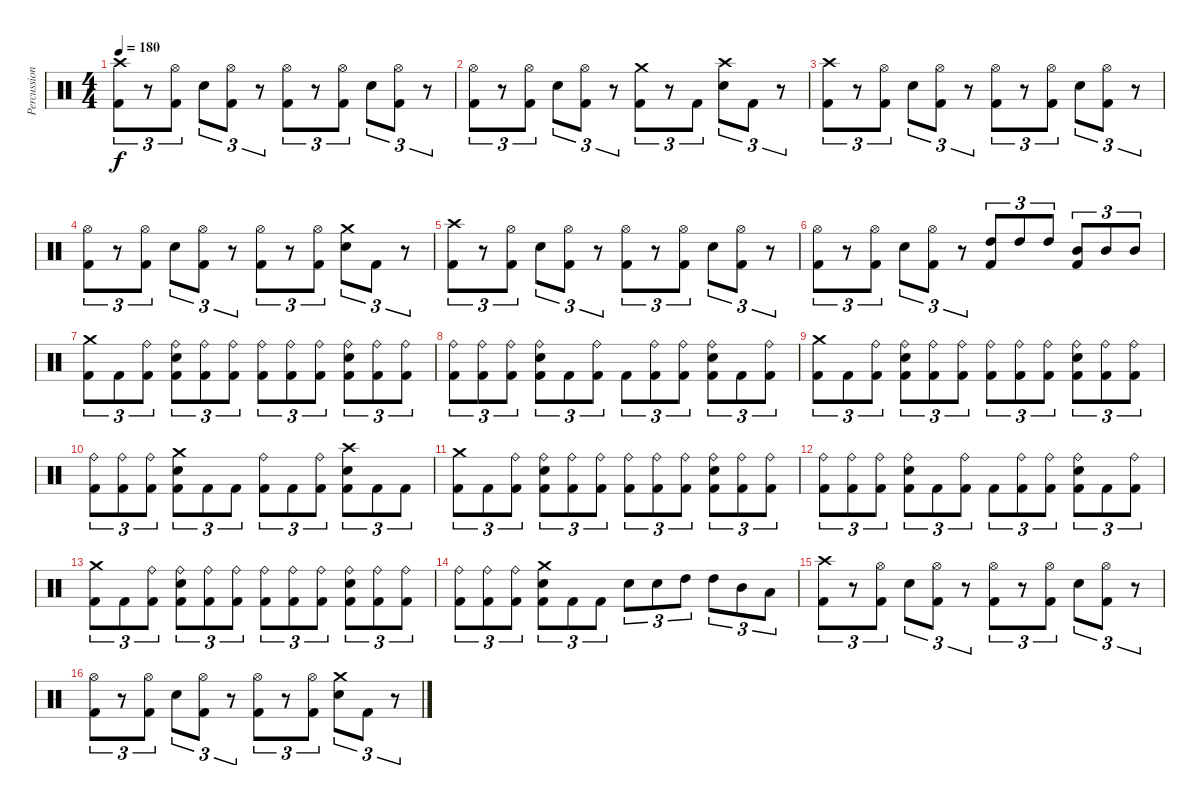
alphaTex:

\track ("Percussion" "Percussion") {instrument percussion}
\staff {score}
\articulation defaults
\ts (4 4)
\tempo 180
\clef neutral
\ks c
("Crash high (hit)" "Kick (hit) 2").8{tu (3 2) dy f} r.8{tu (3 2)} ("Hi-Hat (open)" "Kick (hit) 2").8{tu (3 2)} "Snare (hit) 2".8{tu (3 2)} ("Hi-Hat (open)" "Kick (hit) 2").8{tu (3 2)} r.8{tu (3 2)} ("Hi-Hat (open)" "Kick (hit) 2").8{tu (3 2)} r.8{tu (3 2)} ("Hi-Hat (open)" "Kick (hit) 2").8{tu (3 2)} "Snare (hit) 2".8{tu (3 2)} ("Hi-Hat (open)" "Kick (hit) 2").8{tu (3 2)} r.8{tu (3 2)} |
("Hi-Hat (open)" "Kick (hit) 2").8{tu (3 2)} r.8{tu (3 2)} ("Hi-Hat (open)" "Kick (hit) 2").8{tu (3 2)} "Snare (hit) 2".8{tu (3 2)} ("Hi-Hat (open)" "Kick (hit) 2").8{tu (3 2)} r.8{tu (3 2)} ("Crash medium (hit)" "Kick (hit) 2").8{tu (3 2)} r.8{tu (3 2)} "Kick (hit) 2".8{tu (3 2)} ("Crash high (hit)" "Snare (hit) 2").8{tu (3 2)} "Kick (hit) 2".8{tu (3 2)} r.8{tu (3 2)} |
("Crash high (hit)" "Kick (hit) 2").8{tu (3 2)} r.8{tu (3 2)} ("Hi-Hat (open)" "Kick (hit) 2").8{tu (3 2)} "Snare (hit) 2".8{tu (3 2)} ("Hi-Hat (open)" "Kick (hit) 2").8{tu (3 2)} r.8{tu (3 2)} ("Hi-Hat (open)" "Kick (hit) 2").8{tu (3 2)} r.8{tu (3 2)} ("Hi-Hat (open)" "Kick (hit) 2").8{tu (3 2)} "Snare (hit) 2".8{tu (3 2)} ("Hi-Hat (open)" "Kick (hit) 2").8{tu (3 2)} r.8{tu (3 2)} |
("Hi-Hat (open)" "Kick (hit) 2").8{tu (3 2)} r.8{tu (3 2)} ("Hi-Hat (open)" "Kick (hit) 2").8{tu (3 2)} "Snare (hit) 2".8{tu (3 2)} ("Hi-Hat (open)" "Kick (hit) 2").8{tu (3 2)} r.8{tu (3 2)} ("Hi-Hat (open)" "Kick (hit) 2").8{tu (3 2)} r.8{tu (3 2)} ("Hi-Hat (open)" "Kick (hit) 2").8{tu (3 2)} ("Crash medium (hit)" "Snare (hit) 2").8{tu (3 2)} "Kick (hit) 2".8{tu (3 2)} r.8{tu (3 2)} |
("Crash high (hit)" "Kick (hit) 2").8{tu (3 2)} r.8{tu (3 2)} ("Hi-Hat (open)" "Kick (hit) 2").8{tu (3 2)} "Snare (hit) 2".8{tu (3 2)} ("Hi-Hat (open)" "Kick (hit) 2").8{tu (3 2)} r.8{tu (3 2)} ("Hi-Hat (open)" "Kick (hit) 2").8{tu (3 2)} r.8{tu (3 2)} ("Hi-Hat (open)" "Kick (hit) 2").8{tu (3 2)} "Snare (hit) 2".8{tu (3 2)} ("Hi-Hat (open)" "Kick (hit) 2").8{tu (3 2)} r.8{tu (3 2)} |
("Hi-Hat (open)" "Kick (hit) 2").8{tu (3 2)} r.8{tu (3 2)} ("Hi-Hat (open)" "Kick (hit) 2").8{tu (3 2)} "Snare (hit) 2".8{tu (3 2)} ("Hi-Hat (open)" "Kick (hit) 2").8{tu (3 2)} r.8{tu (3 2)} ("High Tom (hit)" "Kick (hit) 2").8{tu (3 2)} "High Tom (hit)".8{tu (3 2)} "High Tom (hit)".8{tu (3 2)} ("Mid Tom (hit)" "Kick (hit) 2").8{tu (3 2)} "Mid Tom (hit)".8{tu (3 2)} "Mid Tom (hit)".8{tu (3 2)} |
("Crash medium (hit)" "Kick (hit) 2").8{tu (3 2)} "Kick (hit) 2".8{tu (3 2)} ("Ride (bell)" "Kick (hit) 2").8{tu (3 2)} ("Ride (bell)" "Snare (hit) 2" "Kick (hit) 2").8{tu (3 2)} ("Ride (bell)" "Kick (hit) 2").8{tu (3 2)} ("Ride (bell)" "Kick (hit) 2").8{tu (3 2)} ("Ride (bell)" "Kick (hit) 2").8{tu (3 2)} ("Ride (bell)" "Kick (hit) 2").8{tu (3 2)} ("Ride (bell)" "Kick (hit) 2").8{tu (3 2)} ("Ride (bell)" "Snare (hit) 2" "Kick (hit) 2").8{tu (3 2)} ("Ride (bell)" "Kick (hit) 2").8{tu (3 2)} ("Ride (bell)" "Kick (hit) 2").8{tu (3 2)} |
("Ride (bell)" "Kick (hit) 2").8{tu (3 2)} ("Ride (bell)" "Kick (hit) 2").8{tu (3 2)} ("Ride (bell)" "Kick (hit) 2").8{tu (3 2)} ("Ride (bell)" "Snare (hit) 2" "Kick (hit) 2").8{tu (3 2)} "Kick (hit) 2".8{tu (3 2)} ("Ride (bell)" "Kick (hit) 2").8{tu (3 2)} "Kick (hit) 2".8{tu (3 2)} ("Ride (bell)" "Kick (hit) 2").8{tu (3 2)} ("Ride (bell)" "Kick (hit) 2").8{tu (3 2)} ("Ride (bell)" "Snare (hit) 2" "Kick (hit) 2").8{tu (3 2)} "Kick (hit) 2".8{tu (3 2)} ("Ride (bell)" "Kick (hit) 2").8{tu (3 2)} |
("Crash medium (hit)" "Kick (hit) 2").8{tu (3 2)} "Kick (hit) 2".8{tu (3 2)} ("Ride (bell)" "Kick (hit) 2").8{tu (3 2)} ("Ride (bell)" "Snare (hit) 2" "Kick (hit) 2").8{tu (3 2)} ("Ride (bell)" "Kick (hit) 2").8{tu (3 2)} ("Ride (bell)" "Kick (hit) 2").8{tu (3 2)} ("Ride (bell)" "Kick (hit) 2").8{tu (3 2)} ("Ride (bell)" "Kick (hit) 2").8{tu (3 2)} ("Ride (bell)" "Kick (hit) 2").8{tu (3 2)} ("Ride (bell)" "Snare (hit) 2" "Kick (hit) 2").8{tu (3 2)} ("Ride (bell)" "Kick (hit) 2").8{tu (3 2)} ("Ride (bell)" "Kick (hit) 2").8{tu (3 2)} |
("Ride (bell)" "Kick (hit) 2").8{tu (3 2)} ("Ride (bell)" "Kick (hit) 2").8{tu (3 2)} ("Ride (bell)" "Kick (hit) 2").8{tu (3 2)} ("Crash medium (hit)" "Snare (hit) 2" "Kick (hit) 2").8{tu (3 2)} "Kick (hit) 2".8{tu (3 2)} "Kick (hit) 2".8{tu (3 2)} ("Ride (bell)" "Kick (hit) 2").8{tu (3 2)} "Kick (hit) 2".8{tu (3 2)} ("Ride (bell)" "Kick (hit) 2").8{tu (3 2)} ("Crash high (hit)" "Snare (hit) 2" "Kick (hit) 2").8{tu (3 2)} "Kick (hit) 2".8{tu (3 2)} "Kick (hit) 2".8{tu (3 2)} |
("Crash medium (hit)" "Kick (hit) 2").8{tu (3 2)} "Kick (hit) 2".8{tu (3 2)} ("Ride (bell)" "Kick (hit) 2").8{tu (3 2)} ("Ride (bell)" "Snare (hit) 2" "Kick (hit) 2").8{tu (3 2)} ("Ride (bell)" "Kick (hit) 2").8{tu (3 2)} ("Ride (bell)" "Kick (hit) 2").8{tu (3 2)} ("Ride (bell)" "Kick (hit) 2").8{tu (3 2)} ("Ride (bell)" "Kick (hit) 2").8{tu (3 2)} ("Ride (bell)" "Kick (hit) 2").8{tu (3 2)} ("Ride (bell)" "Snare (hit) 2" "Kick (hit) 2").8{tu (3 2)} ("Ride (bell)" "Kick (hit) 2").8{tu (3 2)} ("Ride (bell)" "Kick (hit) 2").8{tu (3 2)} |
("Ride (bell)" "Kick (hit) 2").8{tu (3 2)} ("Ride (bell)" "Kick (hit) 2").8{tu (3 2)} ("Ride (bell)" "Kick (hit) 2").8{tu (3 2)} ("Ride (bell)" "Snare (hit) 2" "Kick (hit) 2").8{tu (3 2)} "Kick (hit) 2".8{tu (3 2)} ("Ride (bell)" "Kick (hit) 2").8{tu (3 2)} "Kick (hit) 2".8{tu (3 2)} ("Ride (bell)" "Kick (hit) 2").8{tu (3 2)} ("Ride (bell)" "Kick (hit) 2").8{tu (3 2)} ("Ride (bell)" "Snare (hit) 2" "Kick (hit) 2").8{tu (3 2)} "Kick (hit) 2".8{tu (3 2)} ("Ride (bell)" "Kick (hit) 2").8{tu (3 2)} |
("Crash medium (hit)" "Kick (hit) 2").8{tu (3 2)} "Kick (hit) 2".8{tu (3 2)} ("Ride (bell)" "Kick (hit) 2").8{tu (3 2)} ("Ride (bell)" "Snare (hit) 2" "Kick (hit) 2").8{tu (3 2)} ("Ride (bell)" "Kick (hit) 2").8{tu (3 2)} ("Ride (bell)" "Kick (hit) 2").8{tu (3 2)} ("Ride (bell)" "Kick (hit) 2").8{tu (3 2)} ("Ride (bell)" "Kick (hit) 2").8{tu (3 2)} ("Ride (bell)" "Kick (hit) 2").8{tu (3 2)} ("Ride (bell)" "Snare (hit) 2" "Kick (hit) 2").8{tu (3 2)} ("Ride (bell)" "Kick (hit) 2").8{tu (3 2)} ("Ride (bell)" "Kick (hit) 2").8{tu (3 2)} |
("Ride (bell)" "Kick (hit) 2").8{tu (3 2)} ("Ride (bell)" "Kick (hit) 2").8{tu (3 2)} ("Ride (bell)" "Kick (hit) 2").8{tu (3 2)} ("Crash medium (hit)" "Snare (hit) 2" "Kick (hit) 2").8{tu (3 2)} "Kick (hit) 2".8{tu (3 2)} "Kick (hit) 2".8{tu (3 2)} "Snare (hit) 2".8{tu (3 2)} "Snare (hit) 2".8{tu (3 2)} "High Tom (hit)".8{tu (3 2)} "High Tom (hit)".8{tu (3 2)} "Mid Tom (hit)".8{tu (3 2)} "Low Tom (hit)".8{tu (3 2)} |
("Crash high (hit)" "Kick (hit) 2").8{tu (3 2)} r.8{tu (3 2)} ("Hi-Hat (open)" "Kick (hit) 2").8{tu (3 2)} "Snare (hit) 2".8{tu (3 2)} ("Hi-Hat (open)" "Kick (hit) 2").8{tu (3 2)} r.8{tu (3 2)} ("Hi-Hat (open)" "Kick (hit) 2").8{tu (3 2)} r.8{tu (3 2)} ("Hi-Hat (open)" "Kick (hit) 2").8{tu (3 2)} "Snare (hit) 2".8{tu (3 2)} ("Hi-Hat (open)" "Kick (hit) 2").8{tu (3 2)} r.8{tu (3 2)} |
("Hi-Hat (open)" "Kick (hit) 2").8{tu (3 2)} r.8{tu (3 2)} ("Hi-Hat (open)" "Kick (hit) 2").8{tu (3 2)} "Snare (hit) 2".8{tu (3 2)} ("Hi-Hat (open)" "Kick (hit) 2").8{tu (3 2)} r.8{tu (3 2)} ("Hi-Hat (open)" "Kick (hit) 2").8{tu (3 2)} r.8{tu (3 2)} ("Hi-Hat (open)" "Kick (hit) 2").8{tu (3 2)} ("Crash medium (hit)" "Snare (hit) 2").8{tu (3 2)} "Kick (hit) 2".8{tu (3 2)} r.8{tu (3 2)}
